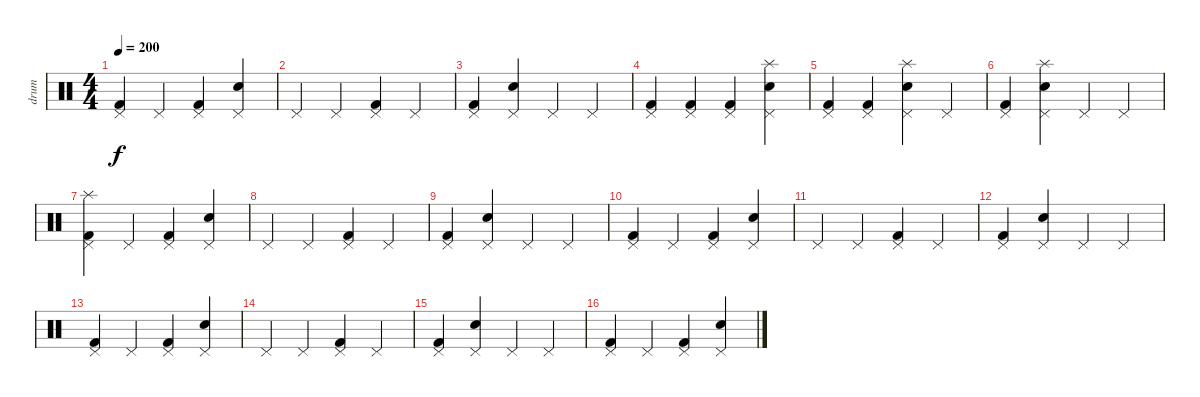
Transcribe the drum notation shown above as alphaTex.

\track ("drum" "drum") {instrument percussion}
\staff {score}
\articulation defaults
\ts (4 4)
\tempo 200
\clef neutral
\ks c
("Pedal Hi-Hat (hit)" "Kick (hit) 2").4{dy f} "Pedal Hi-Hat (hit)".4 ("Pedal Hi-Hat (hit)" "Kick (hit) 2").4 ("Pedal Hi-Hat (hit)" "Electric Snare (hit)").4 |
"Pedal Hi-Hat (hit)".4 "Pedal Hi-Hat (hit)".4 ("Pedal Hi-Hat (hit)" "Kick (hit) 2").4 "Pedal Hi-Hat (hit)".4 |
("Pedal Hi-Hat (hit)" "Kick (hit) 2").4 ("Pedal Hi-Hat (hit)" "Electric Snare (hit)").4 "Pedal Hi-Hat (hit)".4 "Pedal Hi-Hat (hit)".4 |
("Pedal Hi-Hat (hit)" "Kick (hit) 2").4 ("Pedal Hi-Hat (hit)" "Kick (hit) 2").4 ("Pedal Hi-Hat (hit)" "Kick (hit) 2").4 ("Pedal Hi-Hat (hit)" "Splash (hit)" "Electric Snare (hit)").4 |
("Pedal Hi-Hat (hit)" "Kick (hit) 2").4 ("Pedal Hi-Hat (hit)" "Kick (hit) 2").4 ("Pedal Hi-Hat (hit)" "Splash (hit)" "Electric Snare (hit)").4 "Pedal Hi-Hat (hit)".4 |
("Pedal Hi-Hat (hit)" "Kick (hit) 2").4 ("Pedal Hi-Hat (hit)" "Splash (hit)" "Electric Snare (hit)").4 "Pedal Hi-Hat (hit)".4 "Pedal Hi-Hat (hit)".4 |
("Pedal Hi-Hat (hit)" "Splash (hit)" "Kick (hit) 2").4 "Pedal Hi-Hat (hit)".4 ("Pedal Hi-Hat (hit)" "Kick (hit) 2").4 ("Pedal Hi-Hat (hit)" "Electric Snare (hit)").4 |
"Pedal Hi-Hat (hit)".4 "Pedal Hi-Hat (hit)".4 ("Pedal Hi-Hat (hit)" "Kick (hit) 2").4 "Pedal Hi-Hat (hit)".4 |
("Pedal Hi-Hat (hit)" "Kick (hit) 2").4 ("Pedal Hi-Hat (hit)" "Electric Snare (hit)").4 "Pedal Hi-Hat (hit)".4 "Pedal Hi-Hat (hit)".4 |
("Pedal Hi-Hat (hit)" "Kick (hit) 2").4 "Pedal Hi-Hat (hit)".4 ("Pedal Hi-Hat (hit)" "Kick (hit) 2").4 ("Pedal Hi-Hat (hit)" "Electric Snare (hit)").4 |
"Pedal Hi-Hat (hit)".4 "Pedal Hi-Hat (hit)".4 ("Pedal Hi-Hat (hit)" "Kick (hit) 2").4 "Pedal Hi-Hat (hit)".4 |
("Pedal Hi-Hat (hit)" "Kick (hit) 2").4 ("Pedal Hi-Hat (hit)" "Electric Snare (hit)").4 "Pedal Hi-Hat (hit)".4 "Pedal Hi-Hat (hit)".4 |
("Pedal Hi-Hat (hit)" "Kick (hit) 2").4 "Pedal Hi-Hat (hit)".4 ("Pedal Hi-Hat (hit)" "Kick (hit) 2").4 ("Pedal Hi-Hat (hit)" "Electric Snare (hit)").4 |
"Pedal Hi-Hat (hit)".4 "Pedal Hi-Hat (hit)".4 ("Pedal Hi-Hat (hit)" "Kick (hit) 2").4 "Pedal Hi-Hat (hit)".4 |
("Pedal Hi-Hat (hit)" "Kick (hit) 2").4 ("Pedal Hi-Hat (hit)" "Electric Snare (hit)").4 "Pedal Hi-Hat (hit)".4 "Pedal Hi-Hat (hit)".4 |
("Pedal Hi-Hat (hit)" "Kick (hit) 2").4 "Pedal Hi-Hat (hit)".4 ("Pedal Hi-Hat (hit)" "Kick (hit) 2").4 ("Pedal Hi-Hat (hit)" "Electric Snare (hit)").4
